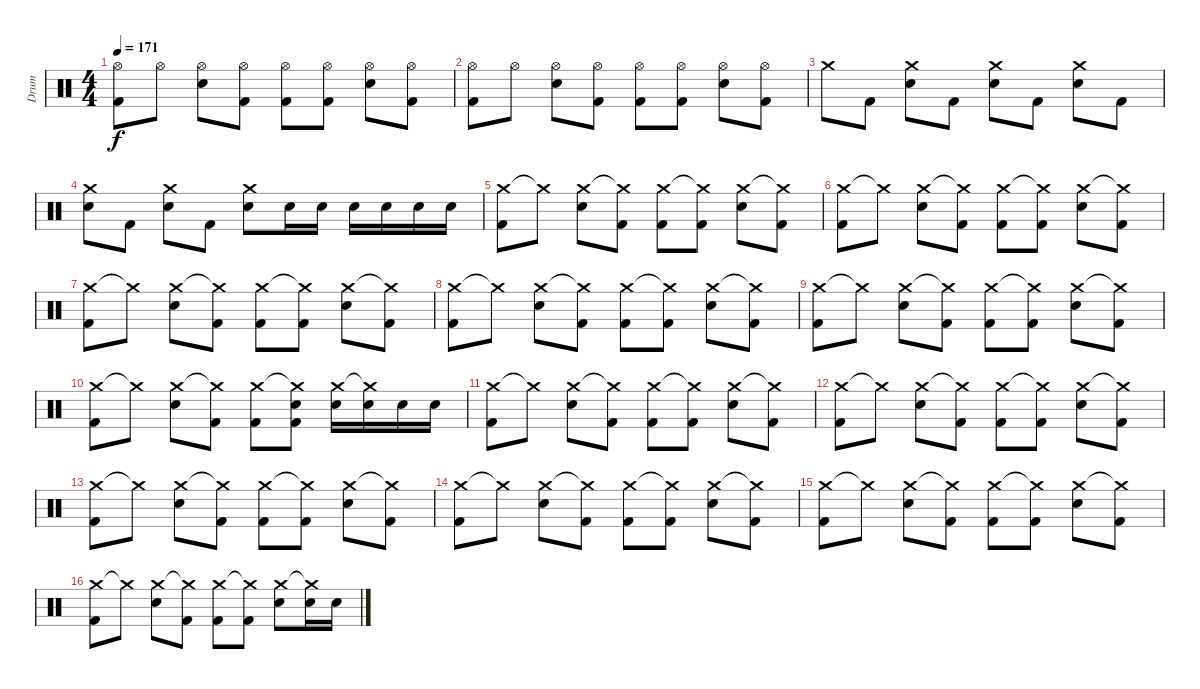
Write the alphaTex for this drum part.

\track ("Drum" "Drum") {instrument percussion}
\staff {score}
\articulation defaults
\ts (4 4)
\tempo 171
\clef neutral
\ks c
("Hi-Hat (open)" "Kick (hit) 2").8{dy f} "Hi-Hat (open)".8 ("Hi-Hat (open)" "Electric Snare (hit)").8 ("Hi-Hat (open)" "Kick (hit) 2").8 ("Hi-Hat (open)" "Kick (hit) 2").8 ("Hi-Hat (open)" "Kick (hit) 2").8 ("Hi-Hat (open)" "Electric Snare (hit)").8 ("Hi-Hat (open)" "Kick (hit) 2").8 |
("Hi-Hat (open)" "Kick (hit) 2").8 "Hi-Hat (open)".8 ("Hi-Hat (open)" "Electric Snare (hit)").8 ("Hi-Hat (open)" "Kick (hit) 2").8 ("Hi-Hat (open)" "Kick (hit) 2").8 ("Hi-Hat (open)" "Kick (hit) 2").8 ("Hi-Hat (open)" "Electric Snare (hit)").8 ("Hi-Hat (open)" "Kick (hit) 2").8 |
"Crash medium (hit)".8 "Kick (hit) 2".8 ("Crash medium (hit)" "Electric Snare (hit)").8 "Kick (hit) 2".8 ("Crash medium (hit)" "Electric Snare (hit)").8 "Kick (hit) 2".8 ("Crash medium (hit)" "Electric Snare (hit)").8 "Kick (hit) 2".8 |
("Crash medium (hit)" "Electric Snare (hit)").8 "Kick (hit) 2".8 ("Crash medium (hit)" "Electric Snare (hit)").8 "Kick (hit) 2".8 ("Crash medium (hit)" "Electric Snare (hit)").8 "Electric Snare (hit)".16 "Electric Snare (hit)".16 "Electric Snare (hit)".16 "Electric Snare (hit)".16 "Electric Snare (hit)".16 "Electric Snare (hit)".16 |
("Crash medium (hit)" "Kick (hit) 2").8 "Crash medium (hit)"{t}.8 ("Crash medium (hit)" "Electric Snare (hit)").8 ("Crash medium (hit)"{t} "Kick (hit) 2").8 ("Crash medium (hit)" "Kick (hit) 2").8 ("Crash medium (hit)"{t} "Kick (hit) 2").8 ("Crash medium (hit)" "Electric Snare (hit)").8 ("Crash medium (hit)"{t} "Kick (hit) 2").8 |
("Crash medium (hit)" "Kick (hit) 2").8 "Crash medium (hit)"{t}.8 ("Crash medium (hit)" "Electric Snare (hit)").8 ("Crash medium (hit)"{t} "Kick (hit) 2").8 ("Crash medium (hit)" "Kick (hit) 2").8 ("Crash medium (hit)"{t} "Kick (hit) 2").8 ("Crash medium (hit)" "Electric Snare (hit)").8 ("Crash medium (hit)"{t} "Kick (hit) 2").8 |
("Crash medium (hit)" "Kick (hit) 2").8 "Crash medium (hit)"{t}.8 ("Crash medium (hit)" "Electric Snare (hit)").8 ("Crash medium (hit)"{t} "Kick (hit) 2").8 ("Crash medium (hit)" "Kick (hit) 2").8 ("Crash medium (hit)"{t} "Kick (hit) 2").8 ("Crash medium (hit)" "Electric Snare (hit)").8 ("Crash medium (hit)"{t} "Kick (hit) 2").8 |
("Crash medium (hit)" "Kick (hit) 2").8 "Crash medium (hit)"{t}.8 ("Crash medium (hit)" "Electric Snare (hit)").8 ("Crash medium (hit)"{t} "Kick (hit) 2").8 ("Crash medium (hit)" "Kick (hit) 2").8 ("Crash medium (hit)"{t} "Kick (hit) 2").8 ("Crash medium (hit)" "Electric Snare (hit)").8 ("Crash medium (hit)"{t} "Kick (hit) 2").8 |
("Crash medium (hit)" "Kick (hit) 2").8 "Crash medium (hit)"{t}.8 ("Crash medium (hit)" "Electric Snare (hit)").8 ("Crash medium (hit)"{t} "Kick (hit) 2").8 ("Crash medium (hit)" "Kick (hit) 2").8 ("Crash medium (hit)"{t} "Kick (hit) 2").8 ("Crash medium (hit)" "Electric Snare (hit)").8 ("Crash medium (hit)"{t} "Kick (hit) 2").8 |
("Crash medium (hit)" "Kick (hit) 2").8 "Crash medium (hit)"{t}.8 ("Crash medium (hit)" "Electric Snare (hit)").8 ("Crash medium (hit)"{t} "Kick (hit) 2").8 ("Crash medium (hit)" "Kick (hit) 2").8 ("Crash medium (hit)"{t} "Electric Snare (hit)" "Kick (hit) 2").8 ("Crash medium (hit)" "Electric Snare (hit)").16 ("Crash medium (hit)"{t} "Electric Snare (hit)").16 "Electric Snare (hit)".16 "Electric Snare (hit)".16 |
("Crash medium (hit)" "Kick (hit) 2").8 "Crash medium (hit)"{t}.8 ("Crash medium (hit)" "Electric Snare (hit)").8 ("Crash medium (hit)"{t} "Kick (hit) 2").8 ("Crash medium (hit)" "Kick (hit) 2").8 ("Crash medium (hit)"{t} "Kick (hit) 2").8 ("Crash medium (hit)" "Electric Snare (hit)").8 ("Crash medium (hit)"{t} "Kick (hit) 2").8 |
("Crash medium (hit)" "Kick (hit) 2").8 "Crash medium (hit)"{t}.8 ("Crash medium (hit)" "Electric Snare (hit)").8 ("Crash medium (hit)"{t} "Kick (hit) 2").8 ("Crash medium (hit)" "Kick (hit) 2").8 ("Crash medium (hit)"{t} "Kick (hit) 2").8 ("Crash medium (hit)" "Electric Snare (hit)").8 ("Crash medium (hit)"{t} "Kick (hit) 2").8 |
("Crash medium (hit)" "Kick (hit) 2").8 "Crash medium (hit)"{t}.8 ("Crash medium (hit)" "Electric Snare (hit)").8 ("Crash medium (hit)"{t} "Kick (hit) 2").8 ("Crash medium (hit)" "Kick (hit) 2").8 ("Crash medium (hit)"{t} "Kick (hit) 2").8 ("Crash medium (hit)" "Electric Snare (hit)").8 ("Crash medium (hit)"{t} "Kick (hit) 2").8 |
("Crash medium (hit)" "Kick (hit) 2").8 "Crash medium (hit)"{t}.8 ("Crash medium (hit)" "Electric Snare (hit)").8 ("Crash medium (hit)"{t} "Kick (hit) 2").8 ("Crash medium (hit)" "Kick (hit) 2").8 ("Crash medium (hit)"{t} "Kick (hit) 2").8 ("Crash medium (hit)" "Electric Snare (hit)").8 ("Crash medium (hit)"{t} "Kick (hit) 2").8 |
("Crash medium (hit)" "Kick (hit) 2").8 "Crash medium (hit)"{t}.8 ("Crash medium (hit)" "Electric Snare (hit)").8 ("Crash medium (hit)"{t} "Kick (hit) 2").8 ("Crash medium (hit)" "Kick (hit) 2").8 ("Crash medium (hit)"{t} "Kick (hit) 2").8 ("Crash medium (hit)" "Electric Snare (hit)").8 ("Crash medium (hit)"{t} "Kick (hit) 2").8 |
("Crash medium (hit)" "Kick (hit) 2").8 "Crash medium (hit)"{t}.8 ("Crash medium (hit)" "Electric Snare (hit)").8 ("Crash medium (hit)"{t} "Kick (hit) 2").8 ("Crash medium (hit)" "Kick (hit) 2").8 ("Crash medium (hit)"{t} "Kick (hit) 2").8 ("Crash medium (hit)" "Electric Snare (hit)").8 ("Crash medium (hit)"{t} "Electric Snare (hit)").16 "Electric Snare (hit)".16
